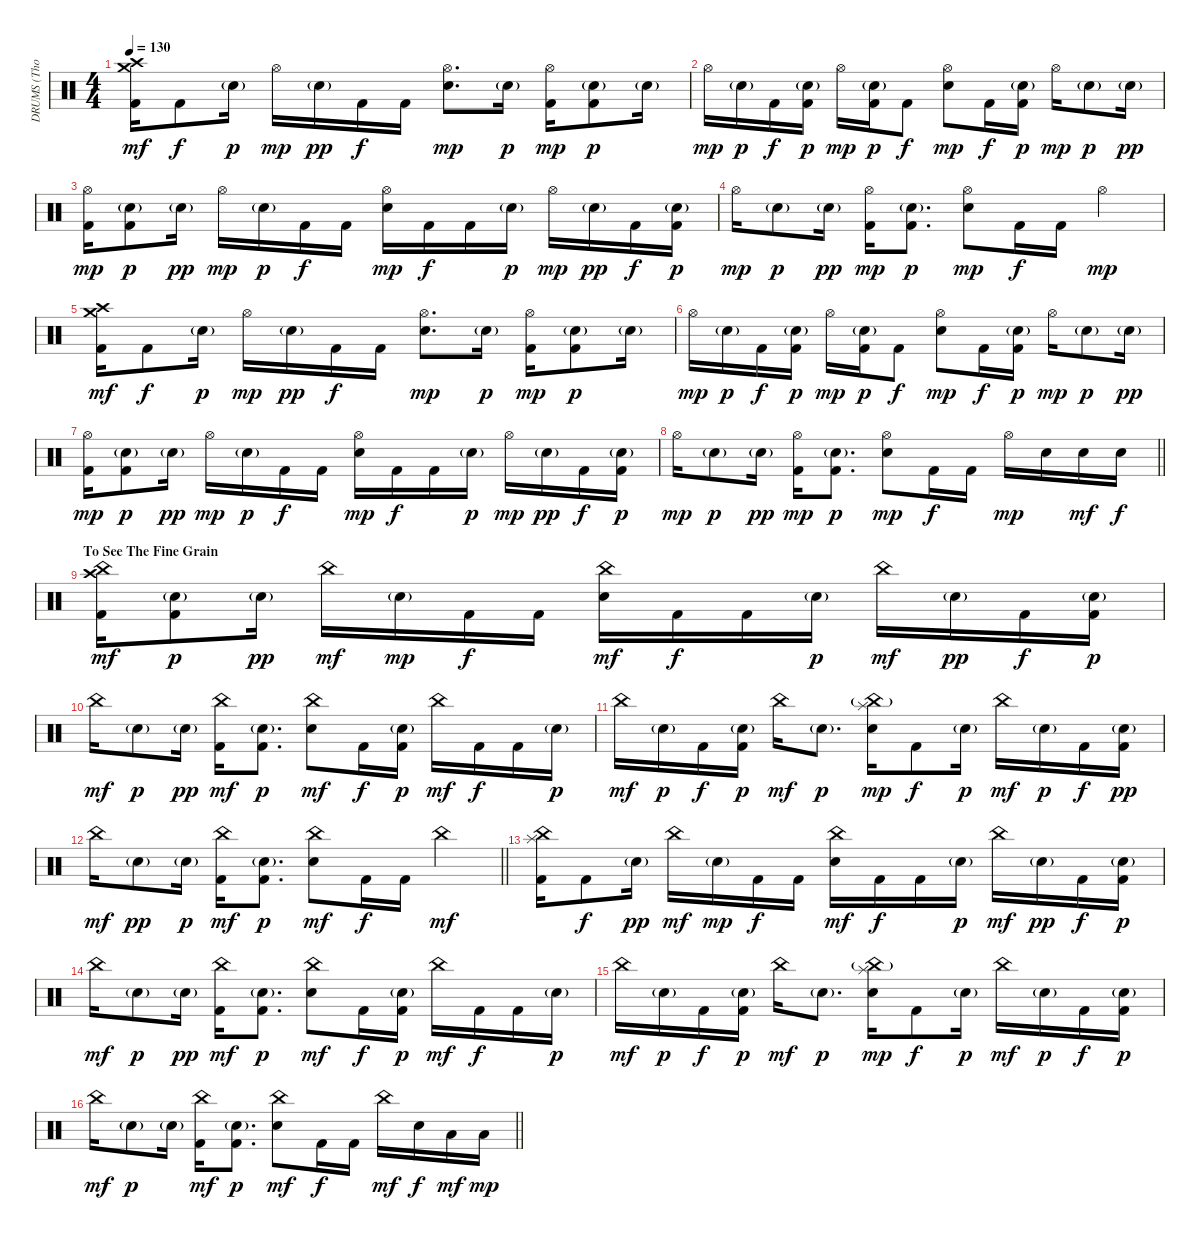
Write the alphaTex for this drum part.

\track ("DRUMS (Thomas Haake)" "DRUMS (Tho") {instrument percussion}
\staff {score}
\articulation defaults
\ts (4 4)
\tempo 130
\clef neutral
\ks c
("Crash high (hit)" "Crash medium (hit)" "Kick (hit) 2").16{dy mf} "Kick (hit) 2".8{dy f} "Electric Snare (hit)"{g}.16{dy p} "Hi-Hat (open)".16{dy mp} "Electric Snare (hit)"{g}.16{dy pp} "Kick (hit) 2".16{dy f} "Kick (hit) 2".16 ("Hi-Hat (open)" "Electric Snare (hit)").8{d dy mp} "Electric Snare (hit)"{g}.16{dy p} ("Hi-Hat (open)" "Kick (hit) 2").16{dy mp} ("Electric Snare (hit)"{g} "Kick (hit) 2").8{dy p} "Electric Snare (hit)"{g}.16 |
"Hi-Hat (open)".16{dy mp} "Electric Snare (hit)"{g}.16{dy p} "Kick (hit) 2".16{dy f} ("Electric Snare (hit)"{g} "Kick (hit) 2").16{dy p} "Hi-Hat (open)".16{dy mp} ("Electric Snare (hit)"{g} "Kick (hit) 2").16{dy p} "Kick (hit) 2".8{dy f} ("Hi-Hat (open)" "Electric Snare (hit)").8{dy mp} "Kick (hit) 2".16{dy f} ("Electric Snare (hit)"{g} "Kick (hit) 2").16{dy p} "Hi-Hat (open)".16{dy mp} "Electric Snare (hit)"{g}.8{dy p} "Electric Snare (hit)"{g}.16{dy pp} |
("Hi-Hat (open)" "Kick (hit) 2").16{dy mp} ("Electric Snare (hit)"{g} "Kick (hit) 2").8{dy p} "Electric Snare (hit)"{g}.16{dy pp} "Hi-Hat (open)".16{dy mp} "Electric Snare (hit)"{g}.16{dy p} "Kick (hit) 2".16{dy f} "Kick (hit) 2".16 ("Hi-Hat (open)" "Electric Snare (hit)").16{dy mp} "Kick (hit) 2".16{dy f} "Kick (hit) 2".16 "Electric Snare (hit)"{g}.16{dy p} "Hi-Hat (open)".16{dy mp} "Electric Snare (hit)"{g}.16{dy pp} "Kick (hit) 2".16{dy f} ("Electric Snare (hit)"{g} "Kick (hit) 2").16{dy p} |
"Hi-Hat (open)".16{dy mp} "Electric Snare (hit)"{g}.8{dy p} "Electric Snare (hit)"{g}.16{dy pp} ("Hi-Hat (open)" "Kick (hit) 2").16{dy mp} ("Electric Snare (hit)"{g} "Kick (hit) 2").8{d dy p} ("Hi-Hat (open)" "Electric Snare (hit)").8{dy mp} "Kick (hit) 2".16{dy f} "Kick (hit) 2".16 "Hi-Hat (open)".4{dy mp} |
("Crash high (hit)" "Crash medium (hit)" "Kick (hit) 2").16{dy mf} "Kick (hit) 2".8{dy f} "Electric Snare (hit)"{g}.16{dy p} "Hi-Hat (open)".16{dy mp} "Electric Snare (hit)"{g}.16{dy pp} "Kick (hit) 2".16{dy f} "Kick (hit) 2".16 ("Hi-Hat (open)" "Electric Snare (hit)").8{d dy mp} "Electric Snare (hit)"{g}.16{dy p} ("Hi-Hat (open)" "Kick (hit) 2").16{dy mp} ("Electric Snare (hit)"{g} "Kick (hit) 2").8{dy p} "Electric Snare (hit)"{g}.16 |
"Hi-Hat (open)".16{dy mp} "Electric Snare (hit)"{g}.16{dy p} "Kick (hit) 2".16{dy f} ("Electric Snare (hit)"{g} "Kick (hit) 2").16{dy p} "Hi-Hat (open)".16{dy mp} ("Electric Snare (hit)"{g} "Kick (hit) 2").16{dy p} "Kick (hit) 2".8{dy f} ("Hi-Hat (open)" "Electric Snare (hit)").8{dy mp} "Kick (hit) 2".16{dy f} ("Electric Snare (hit)"{g} "Kick (hit) 2").16{dy p} "Hi-Hat (open)".16{dy mp} "Electric Snare (hit)"{g}.8{dy p} "Electric Snare (hit)"{g}.16{dy pp} |
("Hi-Hat (open)" "Kick (hit) 2").16{dy mp} ("Electric Snare (hit)"{g} "Kick (hit) 2").8{dy p} "Electric Snare (hit)"{g}.16{dy pp} "Hi-Hat (open)".16{dy mp} "Electric Snare (hit)"{g}.16{dy p} "Kick (hit) 2".16{dy f} "Kick (hit) 2".16 ("Hi-Hat (open)" "Electric Snare (hit)").16{dy mp} "Kick (hit) 2".16{dy f} "Kick (hit) 2".16 "Electric Snare (hit)"{g}.16{dy p} "Hi-Hat (open)".16{dy mp} "Electric Snare (hit)"{g}.16{dy pp} "Kick (hit) 2".16{dy f} ("Electric Snare (hit)"{g} "Kick (hit) 2").16{dy p} |
\barLineRight lightlight "Hi-Hat (open)".16{dy mp} "Electric Snare (hit)"{g}.8{dy p} "Electric Snare (hit)"{g}.16{dy pp}
("Hi-Hat (open)" "Kick (hit) 2").16{dy mp} ("Electric Snare (hit)"{g} "Kick (hit) 2").8{d dy p} ("Hi-Hat (open)" "Electric Snare (hit)").8{dy mp} "Kick (hit) 2".16{dy f} "Kick (hit) 2".16 "Hi-Hat (open)".16{dy mp} "Electric Snare (hit)".16 "Electric Snare (hit)".16{dy mf} "Electric Snare (hit)".16{dy f} |
\section ("" "To See The Fine Grain")
("China (hit)" "Crash high (hit)" "Kick (hit) 2").16{dy mf} ("Electric Snare (hit)"{g} "Kick (hit) 2").8{dy p} "Electric Snare (hit)"{g}.16{dy pp} "China (hit)".16{dy mf} "Electric Snare (hit)"{g}.16{dy mp} "Kick (hit) 2".16{dy f} "Kick (hit) 2".16 ("China (hit)" "Electric Snare (hit)").16{dy mf} "Kick (hit) 2".16{dy f} "Kick (hit) 2".16 "Electric Snare (hit)"{g}.16{dy p} "China (hit)".16{dy mf} "Electric Snare (hit)"{g}.16{dy pp} "Kick (hit) 2".16{dy f} ("Electric Snare (hit)"{g} "Kick (hit) 2").16{dy p} |
"China (hit)".16{dy mf} "Electric Snare (hit)"{g}.8{dy p} "Electric Snare (hit)"{g}.16{dy pp} ("China (hit)" "Kick (hit) 2").16{dy mf} ("Electric Snare (hit)"{g} "Kick (hit) 2").8{d dy p} ("China (hit)" "Electric Snare (hit)").8{dy mf} "Kick (hit) 2".16{dy f} ("Electric Snare (hit)"{g} "Kick (hit) 2").16{dy p} "China (hit)".16{dy mf} "Kick (hit) 2".16{dy f} "Kick (hit) 2".16 "Electric Snare (hit)"{g}.16{dy p} |
"China (hit)".16{dy mf} "Electric Snare (hit)"{g}.16{dy p} "Kick (hit) 2".16{dy f} ("Electric Snare (hit)"{g} "Kick (hit) 2").16{dy p} "China (hit)".16{dy mf} "Electric Snare (hit)"{g}.8{d dy p} ("Splash (hit)" "China (hit)"{g} "Electric Snare (hit)").16{dy mp} "Kick (hit) 2".8{dy f} "Electric Snare (hit)"{g}.16{dy p} "China (hit)".16{dy mf} "Electric Snare (hit)"{g}.16{dy p} "Kick (hit) 2".16{dy f} ("Electric Snare (hit)"{g} "Kick (hit) 2").16{dy pp} |
\barLineRight lightlight "China (hit)".16{dy mf} "Electric Snare (hit)"{g}.8{dy pp} "Electric Snare (hit)"{g}.16{dy p}
("China (hit)" "Kick (hit) 2").16{dy mf} ("Electric Snare (hit)"{g} "Kick (hit) 2").8{d dy p} ("China (hit)" "Electric Snare (hit)").8{dy mf} "Kick (hit) 2".16{dy f} "Kick (hit) 2".16 "China (hit)".4{dy mf} |
("China (hit)" "Splash (hit)" "Kick (hit) 2").16 "Kick (hit) 2".8{dy f} "Electric Snare (hit)"{g}.16{dy pp} "China (hit)".16{dy mf} "Electric Snare (hit)"{g}.16{dy mp} "Kick (hit) 2".16{dy f} "Kick (hit) 2".16 ("China (hit)" "Electric Snare (hit)").16{dy mf} "Kick (hit) 2".16{dy f} "Kick (hit) 2".16 "Electric Snare (hit)"{g}.16{dy p} "China (hit)".16{dy mf} "Electric Snare (hit)"{g}.16{dy pp} "Kick (hit) 2".16{dy f} ("Electric Snare (hit)"{g} "Kick (hit) 2").16{dy p} |
"China (hit)".16{dy mf} "Electric Snare (hit)"{g}.8{dy p} "Electric Snare (hit)"{g}.16{dy pp} ("China (hit)" "Kick (hit) 2").16{dy mf} ("Electric Snare (hit)"{g} "Kick (hit) 2").8{d dy p} ("China (hit)" "Electric Snare (hit)").8{dy mf} "Kick (hit) 2".16{dy f} ("Electric Snare (hit)"{g} "Kick (hit) 2").16{dy p} "China (hit)".16{dy mf} "Kick (hit) 2".16{dy f} "Kick (hit) 2".16 "Electric Snare (hit)"{g}.16{dy p} |
"China (hit)".16{dy mf} "Electric Snare (hit)"{g}.16{dy p} "Kick (hit) 2".16{dy f} ("Electric Snare (hit)"{g} "Kick (hit) 2").16{dy p} "China (hit)".16{dy mf} "Electric Snare (hit)"{g}.8{d dy p} ("Splash (hit)" "China (hit)"{g} "Electric Snare (hit)").16{dy mp} "Kick (hit) 2".8{dy f} "Electric Snare (hit)"{g}.16{dy p} "China (hit)".16{dy mf} "Electric Snare (hit)"{g}.16{dy p} "Kick (hit) 2".16{dy f} ("Electric Snare (hit)"{g} "Kick (hit) 2").16{dy p} |
\barLineRight lightlight "China (hit)".16{dy mf} "Electric Snare (hit)"{g}.8{dy p} "Electric Snare (hit)"{g}.16
("China (hit)" "Kick (hit) 2").16{dy mf} ("Electric Snare (hit)"{g} "Kick (hit) 2").8{d dy p} ("China (hit)" "Electric Snare (hit)").8{dy mf} "Kick (hit) 2".16{dy f} "Kick (hit) 2".16 "China (hit)".16{dy mf} "Electric Snare (hit)".16{dy f} "Low Tom (hit)".16{dy mf} "Low Tom (hit)".16{dy mp}
